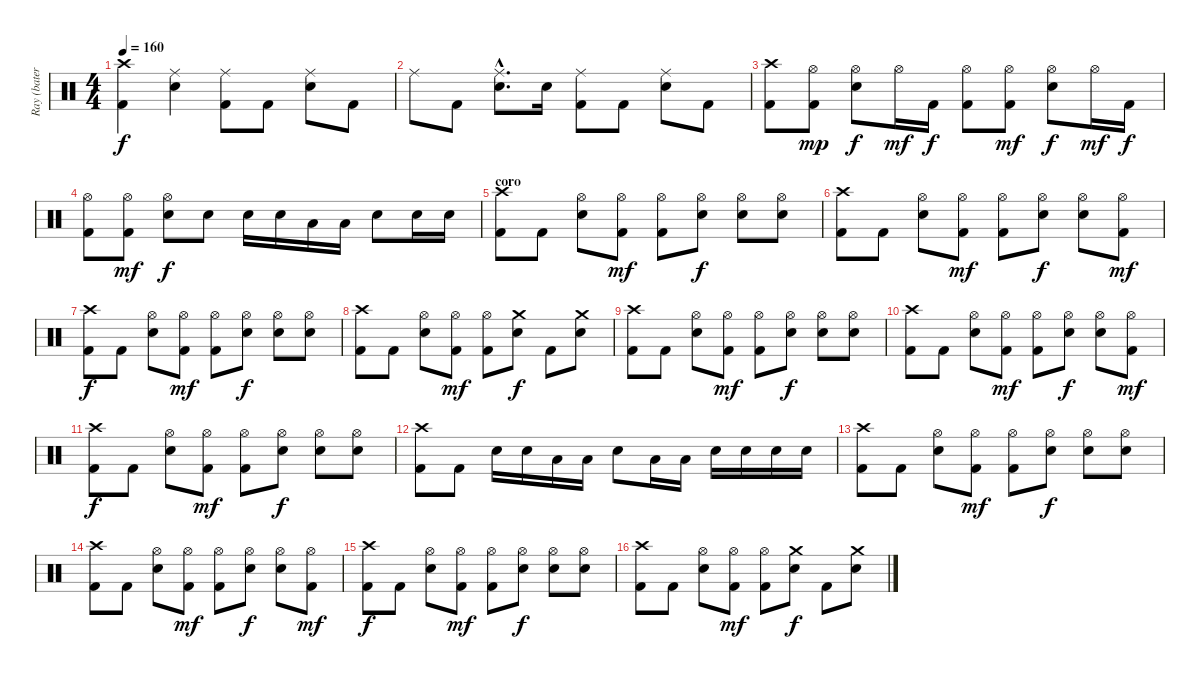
\track ("Ray (batería)" "Ray (bater") {instrument percussion}
\staff {score}
\articulation defaults
\ts (4 4)
\tempo 160
\clef neutral
\ks c
("Crash high (hit)" "Kick (hit) 2").4{dy f} ("Ride (middle)" "Snare (hit) 2").4 ("Ride (middle)" "Kick (hit) 2").8 "Kick (hit) 2".8 ("Ride (middle)" "Snare (hit) 2").8 "Kick (hit) 2".8 |
"Ride (middle)".8 "Kick (hit) 2".8 ("Ride (middle)"{hac} "Snare (hit) 2"{hac}).8{d} "Snare (hit) 2".16 ("Ride (middle)" "Kick (hit) 2").8 "Kick (hit) 2".8 ("Ride (middle)" "Snare (hit) 2").8 "Kick (hit) 2".8 |
("Crash high (hit)" "Kick (hit) 2").8 ("Hi-Hat (open)" "Kick (hit) 2").8{dy mp} ("Hi-Hat (open)" "Snare (hit) 2").8{dy f} "Hi-Hat (open)".16{dy mf} "Kick (hit) 2".16{dy f} ("Hi-Hat (open)" "Kick (hit) 2").8 ("Hi-Hat (open)" "Kick (hit) 2").8{dy mf} ("Hi-Hat (open)" "Snare (hit) 2").8{dy f} "Hi-Hat (open)".16{dy mf} "Kick (hit) 2".16{dy f} |
("Hi-Hat (open)" "Kick (hit) 2").8 ("Hi-Hat (open)" "Kick (hit) 2").8{dy mf} ("Hi-Hat (open)" "Snare (hit) 2").8{dy f} "Snare (hit) 2".8 "Snare (hit) 2".16 "Snare (hit) 2".16 "Low Tom (hit)".16 "Low Tom (hit)".16 "Snare (hit) 2".8 "Snare (hit) 2".16 "Snare (hit) 2".16 |
\section ("" "coro")
("Crash high (hit)" "Kick (hit) 2").8 "Kick (hit) 2".8 ("Hi-Hat (open)" "Snare (hit) 2").8 ("Hi-Hat (open)" "Kick (hit) 2").8{dy mf} ("Hi-Hat (open)" "Kick (hit) 2").8 ("Hi-Hat (open)" "Snare (hit) 2").8{dy f} ("Hi-Hat (open)" "Snare (hit) 2").8 ("Hi-Hat (open)" "Snare (hit) 2").8 |
("Crash high (hit)" "Kick (hit) 2").8 "Kick (hit) 2".8 ("Hi-Hat (open)" "Snare (hit) 2").8 ("Hi-Hat (open)" "Kick (hit) 2").8{dy mf} ("Hi-Hat (open)" "Kick (hit) 2").8 ("Hi-Hat (open)" "Snare (hit) 2").8{dy f} ("Hi-Hat (open)" "Snare (hit) 2").8 ("Hi-Hat (open)" "Kick (hit) 2").8{dy mf} |
("Crash high (hit)" "Kick (hit) 2").8{dy f} "Kick (hit) 2".8 ("Hi-Hat (open)" "Snare (hit) 2").8 ("Hi-Hat (open)" "Kick (hit) 2").8{dy mf} ("Hi-Hat (open)" "Kick (hit) 2").8 ("Hi-Hat (open)" "Snare (hit) 2").8{dy f} ("Hi-Hat (open)" "Snare (hit) 2").8 ("Hi-Hat (open)" "Snare (hit) 2").8 |
("Crash high (hit)" "Kick (hit) 2").8 "Kick (hit) 2".8 ("Hi-Hat (open)" "Snare (hit) 2").8 ("Hi-Hat (open)" "Kick (hit) 2").8{dy mf} ("Hi-Hat (open)" "Kick (hit) 2").8 ("Crash medium (hit)" "Snare (hit) 2").8{dy f} "Kick (hit) 2".8 ("Crash medium (hit)" "Snare (hit) 2").8 |
("Crash high (hit)" "Kick (hit) 2").8 "Kick (hit) 2".8 ("Hi-Hat (open)" "Snare (hit) 2").8 ("Hi-Hat (open)" "Kick (hit) 2").8{dy mf} ("Hi-Hat (open)" "Kick (hit) 2").8 ("Hi-Hat (open)" "Snare (hit) 2").8{dy f} ("Hi-Hat (open)" "Snare (hit) 2").8 ("Hi-Hat (open)" "Snare (hit) 2").8 |
("Crash high (hit)" "Kick (hit) 2").8 "Kick (hit) 2".8 ("Hi-Hat (open)" "Snare (hit) 2").8 ("Hi-Hat (open)" "Kick (hit) 2").8{dy mf} ("Hi-Hat (open)" "Kick (hit) 2").8 ("Hi-Hat (open)" "Snare (hit) 2").8{dy f} ("Hi-Hat (open)" "Snare (hit) 2").8 ("Hi-Hat (open)" "Kick (hit) 2").8{dy mf} |
("Crash high (hit)" "Kick (hit) 2").8{dy f} "Kick (hit) 2".8 ("Hi-Hat (open)" "Snare (hit) 2").8 ("Hi-Hat (open)" "Kick (hit) 2").8{dy mf} ("Hi-Hat (open)" "Kick (hit) 2").8 ("Hi-Hat (open)" "Snare (hit) 2").8{dy f} ("Hi-Hat (open)" "Snare (hit) 2").8 ("Hi-Hat (open)" "Snare (hit) 2").8 |
("Crash high (hit)" "Kick (hit) 2").8 "Kick (hit) 2".8 "Snare (hit) 2".16 "Snare (hit) 2".16 "Low Tom (hit)".16 "Low Tom (hit)".16 "Snare (hit) 2".8 "Low Tom (hit)".16 "Low Tom (hit)".16 "Snare (hit) 2".16 "Snare (hit) 2".16 "Snare (hit) 2".16 "Snare (hit) 2".16 |
("Crash high (hit)" "Kick (hit) 2").8 "Kick (hit) 2".8 ("Hi-Hat (open)" "Snare (hit) 2").8 ("Hi-Hat (open)" "Kick (hit) 2").8{dy mf} ("Hi-Hat (open)" "Kick (hit) 2").8 ("Hi-Hat (open)" "Snare (hit) 2").8{dy f} ("Hi-Hat (open)" "Snare (hit) 2").8 ("Hi-Hat (open)" "Snare (hit) 2").8 |
("Crash high (hit)" "Kick (hit) 2").8 "Kick (hit) 2".8 ("Hi-Hat (open)" "Snare (hit) 2").8 ("Hi-Hat (open)" "Kick (hit) 2").8{dy mf} ("Hi-Hat (open)" "Kick (hit) 2").8 ("Hi-Hat (open)" "Snare (hit) 2").8{dy f} ("Hi-Hat (open)" "Snare (hit) 2").8 ("Hi-Hat (open)" "Kick (hit) 2").8{dy mf} |
("Crash high (hit)" "Kick (hit) 2").8{dy f} "Kick (hit) 2".8 ("Hi-Hat (open)" "Snare (hit) 2").8 ("Hi-Hat (open)" "Kick (hit) 2").8{dy mf} ("Hi-Hat (open)" "Kick (hit) 2").8 ("Hi-Hat (open)" "Snare (hit) 2").8{dy f} ("Hi-Hat (open)" "Snare (hit) 2").8 ("Hi-Hat (open)" "Snare (hit) 2").8 |
("Crash high (hit)" "Kick (hit) 2").8 "Kick (hit) 2".8 ("Hi-Hat (open)" "Snare (hit) 2").8 ("Hi-Hat (open)" "Kick (hit) 2").8{dy mf} ("Hi-Hat (open)" "Kick (hit) 2").8 ("Crash medium (hit)" "Snare (hit) 2").8{dy f} "Kick (hit) 2".8 ("Crash medium (hit)" "Snare (hit) 2").8
